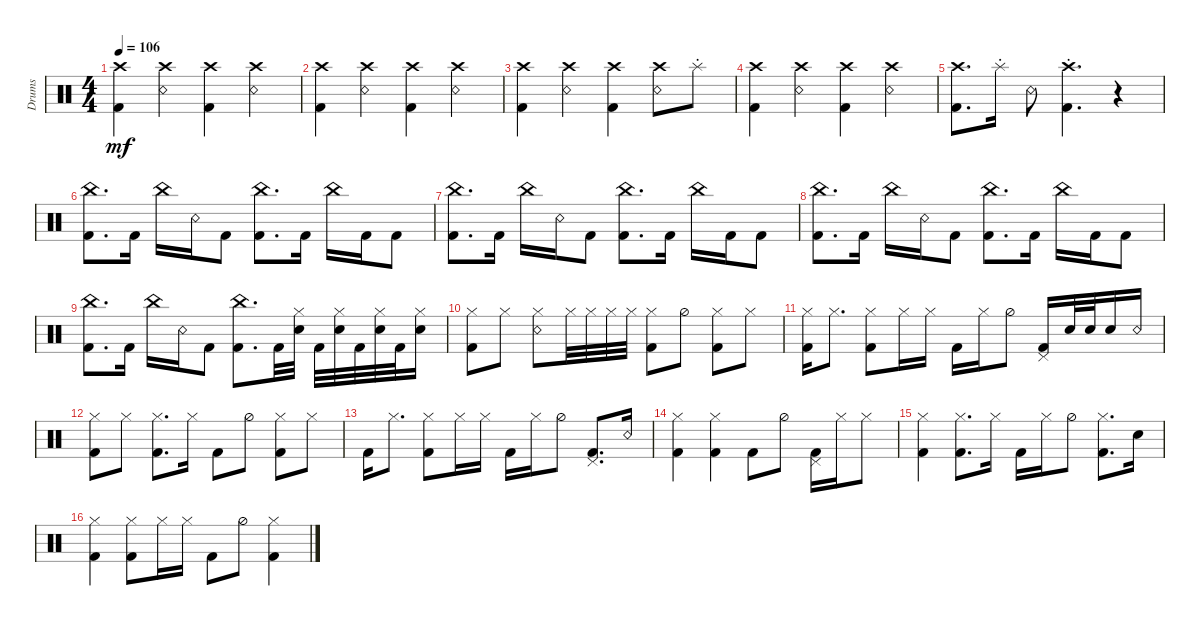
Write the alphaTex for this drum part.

\track ("Drums" "Drums") {instrument percussion}
\staff {score}
\articulation defaults
\ts (4 4)
\tempo 106
\clef neutral
\ks c
("Crash high (hit)" "Kick (hit) 2").4{dy mf} ("Crash high (hit)" "Snare (rim shot)").4 ("Crash high (hit)" "Kick (hit) 2").4 ("Crash high (hit)" "Snare (rim shot)").4 |
("Crash high (hit)" "Kick (hit) 2").4 ("Crash high (hit)" "Snare (rim shot)").4 ("Crash high (hit)" "Kick (hit) 2").4 ("Crash high (hit)" "Snare (rim shot)").4 |
("Crash high (hit)" "Kick (hit) 2").4 ("Crash high (hit)" "Snare (rim shot)").4 ("Crash high (hit)" "Kick (hit) 2").4 ("Crash high (hit)" "Snare (rim shot)").8 "Splash (choke)".8 |
("Crash high (hit)" "Kick (hit) 2").4 ("Crash high (hit)" "Snare (rim shot)").4 ("Crash high (hit)" "Kick (hit) 2").4 ("Crash high (hit)" "Snare (rim shot)").4 |
("Crash high (hit)" "Kick (hit) 2").8{d} "Splash (choke)".16 "Snare (rim shot)".8 ("Crash high (hit)"{st} "Kick (hit) 2").4{d} r.4 |
("China (hit)" "Kick (hit) 2").8{d} "Kick (hit) 2".16 "China (hit)".16 "Snare (rim shot)".16 "Kick (hit) 2".8 ("China (hit)" "Kick (hit) 2").8{d} "Kick (hit) 2".16 "China (hit)".16 "Kick (hit) 2".16 "Kick (hit) 2".8 |
("China (hit)" "Kick (hit) 2").8{d} "Kick (hit) 2".16 "China (hit)".16 "Snare (rim shot)".16 "Kick (hit) 2".8 ("China (hit)" "Kick (hit) 2").8{d} "Kick (hit) 2".16 "China (hit)".16 "Kick (hit) 2".16 "Kick (hit) 2".8 |
("China (hit)" "Kick (hit) 2").8{d} "Kick (hit) 2".16 "China (hit)".16 "Snare (rim shot)".16 "Kick (hit) 2".8 ("China (hit)" "Kick (hit) 2").8{d} "Kick (hit) 2".16 "China (hit)".16 "Kick (hit) 2".16 "Kick (hit) 2".8 |
("China (hit)" "Kick (hit) 2").8{d} "Kick (hit) 2".16 "China (hit)".16 "Snare (rim shot)".16 "Kick (hit) 2".8 ("China (hit)" "Kick (hit) 2").8{d} "Kick (hit) 2".32 ("Hi-Hat (closed)" "Snare (hit) 2").32 "Kick (hit) 2".32 ("Hi-Hat (closed)" "Snare (hit) 2").32 "Kick (hit) 2".32 ("Hi-Hat (closed)" "Snare (hit) 2").32 "Kick (hit) 2".32 ("Hi-Hat (closed)" "Snare (hit) 2").16 |
("Hi-Hat (closed)" "Kick (hit) 2").8 "Hi-Hat (closed)".8 ("Hi-Hat (closed)" "Snare (rim shot)").8 "Hi-Hat (closed)".32 "Hi-Hat (closed)".32 "Hi-Hat (closed)".32 "Hi-Hat (closed)".32 ("Hi-Hat (closed)" "Kick (hit) 2").8 "Hi-Hat (half)".8 ("Hi-Hat (closed)" "Kick (hit) 2").8 "Hi-Hat (closed)".8 |
("Hi-Hat (closed)" "Kick (hit) 2").16 "Hi-Hat (closed)".8{d} ("Hi-Hat (closed)" "Kick (hit) 2").8 "Hi-Hat (closed)".16 "Hi-Hat (closed)".16 "Kick (hit) 2".16 "Hi-Hat (closed)".16 "Hi-Hat (half)".8 ("Pedal Hi-Hat (hit)" "Kick (hit) 2").16 "Snare (hit) 2".32 "Snare (hit) 2".32 "Snare (hit) 2".16 "Snare (rim shot)".16 |
("Hi-Hat (closed)" "Kick (hit) 2").8 "Hi-Hat (closed)".8 ("Hi-Hat (closed)" "Kick (hit) 2").8{d} "Hi-Hat (closed)".16 "Kick (hit) 2".8 "Hi-Hat (half)".8 ("Hi-Hat (closed)" "Kick (hit) 2").8 "Hi-Hat (closed)".8 |
"Kick (hit) 2".16 "Hi-Hat (closed)".8{d} ("Hi-Hat (closed)" "Kick (hit) 2").8 "Hi-Hat (closed)".16 "Hi-Hat (closed)".16 "Kick (hit) 2".16 "Hi-Hat (closed)".16 "Hi-Hat (half)".8 ("Pedal Hi-Hat (hit)" "Kick (hit) 2").8{d} "Snare (rim shot)".16 |
("Hi-Hat (closed)" "Kick (hit) 2").4 ("Hi-Hat (closed)" "Kick (hit) 2").4 "Kick (hit) 2".8 "Hi-Hat (half)".8 ("Pedal Hi-Hat (hit)" "Kick (hit) 2").16 "Hi-Hat (closed)".16 "Hi-Hat (closed)".8 |
("Hi-Hat (closed)" "Kick (hit) 2").4 ("Hi-Hat (closed)" "Kick (hit) 2").8{d} "Hi-Hat (closed)".16 "Kick (hit) 2".16 "Hi-Hat (closed)".16 "Hi-Hat (half)".8 ("Hi-Hat (closed)" "Kick (hit) 2").8{d} "Snare (hit) 2".16 |
("Hi-Hat (closed)" "Kick (hit) 2").4 ("Hi-Hat (closed)" "Kick (hit) 2").8 "Hi-Hat (closed)".16 "Hi-Hat (closed)".16 "Kick (hit) 2".8 "Hi-Hat (half)".8 ("Hi-Hat (closed)" "Kick (hit) 2").4
